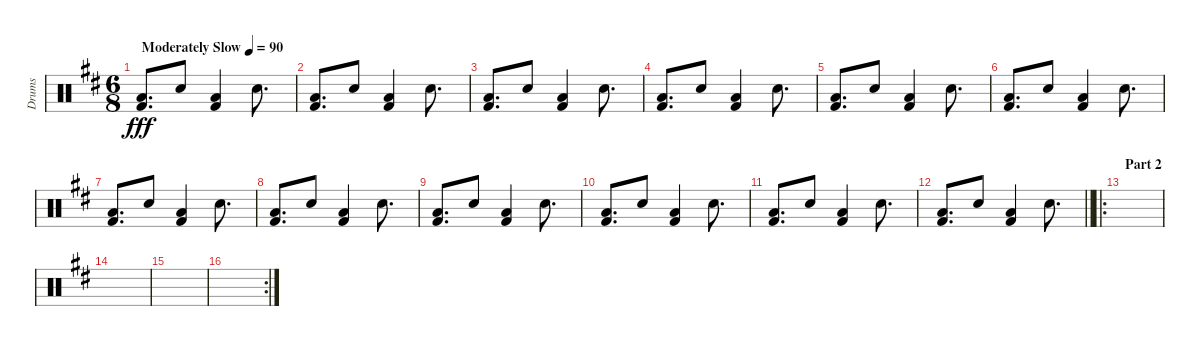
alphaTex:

\track ("Drums" "Drums") {instrument percussion}
\staff {score}
\articulation defaults
\ts (6 8)
\tempo (90 "Moderately Slow")
\clef neutral
\ks d
("Low Floor Tom (hit)" "Kick (hit) 2").8{d dy fff} "Electric Snare (hit)".8 ("Low Floor Tom (hit)" "Kick (hit) 2").4 "Electric Snare (hit)".8{d} |
("Low Floor Tom (hit)" "Kick (hit) 2").8{d} "Electric Snare (hit)".8 ("Low Floor Tom (hit)" "Kick (hit) 2").4 "Electric Snare (hit)".8{d} |
("Low Floor Tom (hit)" "Kick (hit) 2").8{d} "Electric Snare (hit)".8 ("Low Floor Tom (hit)" "Kick (hit) 2").4 "Electric Snare (hit)".8{d} |
("Low Floor Tom (hit)" "Kick (hit) 2").8{d} "Electric Snare (hit)".8 ("Low Floor Tom (hit)" "Kick (hit) 2").4 "Electric Snare (hit)".8{d} |
("Low Floor Tom (hit)" "Kick (hit) 2").8{d} "Electric Snare (hit)".8 ("Low Floor Tom (hit)" "Kick (hit) 2").4 "Electric Snare (hit)".8{d} |
("Low Floor Tom (hit)" "Kick (hit) 2").8{d} "Electric Snare (hit)".8 ("Low Floor Tom (hit)" "Kick (hit) 2").4 "Electric Snare (hit)".8{d} |
("Low Floor Tom (hit)" "Kick (hit) 2").8{d} "Electric Snare (hit)".8 ("Low Floor Tom (hit)" "Kick (hit) 2").4 "Electric Snare (hit)".8{d} |
("Low Floor Tom (hit)" "Kick (hit) 2").8{d} "Electric Snare (hit)".8 ("Low Floor Tom (hit)" "Kick (hit) 2").4 "Electric Snare (hit)".8{d} |
("Low Floor Tom (hit)" "Kick (hit) 2").8{d} "Electric Snare (hit)".8 ("Low Floor Tom (hit)" "Kick (hit) 2").4 "Electric Snare (hit)".8{d} |
("Low Floor Tom (hit)" "Kick (hit) 2").8{d} "Electric Snare (hit)".8 ("Low Floor Tom (hit)" "Kick (hit) 2").4 "Electric Snare (hit)".8{d} |
("Low Floor Tom (hit)" "Kick (hit) 2").8{d} "Electric Snare (hit)".8 ("Low Floor Tom (hit)" "Kick (hit) 2").4 "Electric Snare (hit)".8{d} |
\barLineRight lightlight
("Low Floor Tom (hit)" "Kick (hit) 2").8{d} "Electric Snare (hit)".8 ("Low Floor Tom (hit)" "Kick (hit) 2").4 "Electric Snare (hit)".8{d} |
\ro
\section ("" "Part 2")
|
|
|
\rc 2
